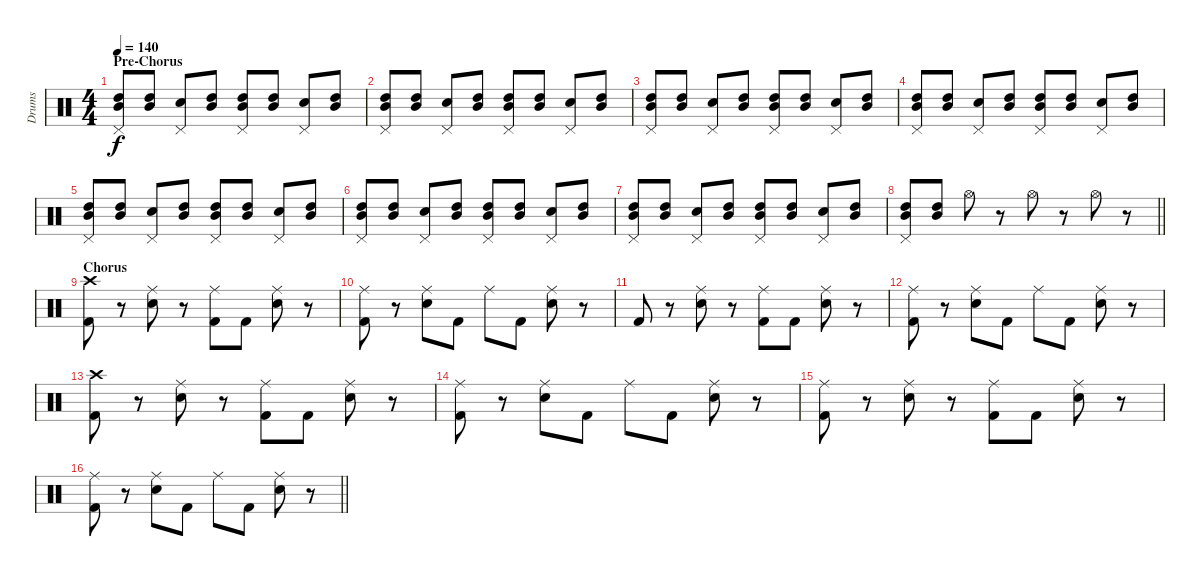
\track ("Drums" "Drums") {instrument percussion}
\staff {score}
\articulation defaults
\ts (4 4)
\section ("" "Pre-Chorus")
\tempo 140
\clef neutral
\ks c
("Pedal Hi-Hat (hit)" "High Tom (hit)" "Mid Tom (hit)").8{dy f} ("High Tom (hit)" "Mid Tom (hit)").8 ("Pedal Hi-Hat (hit)" "Snare (hit) 2").8 ("High Tom (hit)" "Mid Tom (hit)").8 ("Pedal Hi-Hat (hit)" "High Tom (hit)" "Mid Tom (hit)").8 ("High Tom (hit)" "Mid Tom (hit)").8 ("Pedal Hi-Hat (hit)" "Snare (hit) 2").8 ("High Tom (hit)" "Mid Tom (hit)").8 |
("Pedal Hi-Hat (hit)" "High Tom (hit)" "Mid Tom (hit)").8 ("High Tom (hit)" "Mid Tom (hit)").8 ("Pedal Hi-Hat (hit)" "Snare (hit) 2").8 ("High Tom (hit)" "Mid Tom (hit)").8 ("Pedal Hi-Hat (hit)" "High Tom (hit)" "Mid Tom (hit)").8 ("High Tom (hit)" "Mid Tom (hit)").8 ("Pedal Hi-Hat (hit)" "Snare (hit) 2").8 ("High Tom (hit)" "Mid Tom (hit)").8 |
("Pedal Hi-Hat (hit)" "High Tom (hit)" "Mid Tom (hit)").8 ("High Tom (hit)" "Mid Tom (hit)").8 ("Pedal Hi-Hat (hit)" "Snare (hit) 2").8 ("High Tom (hit)" "Mid Tom (hit)").8 ("Pedal Hi-Hat (hit)" "High Tom (hit)" "Mid Tom (hit)").8 ("High Tom (hit)" "Mid Tom (hit)").8 ("Pedal Hi-Hat (hit)" "Snare (hit) 2").8 ("High Tom (hit)" "Mid Tom (hit)").8 |
("Pedal Hi-Hat (hit)" "High Tom (hit)" "Mid Tom (hit)").8 ("High Tom (hit)" "Mid Tom (hit)").8 ("Pedal Hi-Hat (hit)" "Snare (hit) 2").8 ("High Tom (hit)" "Mid Tom (hit)").8 ("Pedal Hi-Hat (hit)" "High Tom (hit)" "Mid Tom (hit)").8 ("High Tom (hit)" "Mid Tom (hit)").8 ("Pedal Hi-Hat (hit)" "Snare (hit) 2").8 ("High Tom (hit)" "Mid Tom (hit)").8 |
("Pedal Hi-Hat (hit)" "High Tom (hit)" "Mid Tom (hit)").8 ("High Tom (hit)" "Mid Tom (hit)").8 ("Pedal Hi-Hat (hit)" "Snare (hit) 2").8 ("High Tom (hit)" "Mid Tom (hit)").8 ("Pedal Hi-Hat (hit)" "High Tom (hit)" "Mid Tom (hit)").8 ("High Tom (hit)" "Mid Tom (hit)").8 ("Pedal Hi-Hat (hit)" "Snare (hit) 2").8 ("High Tom (hit)" "Mid Tom (hit)").8 |
("Pedal Hi-Hat (hit)" "High Tom (hit)" "Mid Tom (hit)").8 ("High Tom (hit)" "Mid Tom (hit)").8 ("Pedal Hi-Hat (hit)" "Snare (hit) 2").8 ("High Tom (hit)" "Mid Tom (hit)").8 ("Pedal Hi-Hat (hit)" "High Tom (hit)" "Mid Tom (hit)").8 ("High Tom (hit)" "Mid Tom (hit)").8 ("Pedal Hi-Hat (hit)" "Snare (hit) 2").8 ("High Tom (hit)" "Mid Tom (hit)").8 |
("Pedal Hi-Hat (hit)" "High Tom (hit)" "Mid Tom (hit)").8 ("High Tom (hit)" "Mid Tom (hit)").8 ("Pedal Hi-Hat (hit)" "Snare (hit) 2").8 ("High Tom (hit)" "Mid Tom (hit)").8 ("Pedal Hi-Hat (hit)" "High Tom (hit)" "Mid Tom (hit)").8 ("High Tom (hit)" "Mid Tom (hit)").8 ("Pedal Hi-Hat (hit)" "Snare (hit) 2").8 ("High Tom (hit)" "Mid Tom (hit)").8 |
\barLineRight lightlight
("Pedal Hi-Hat (hit)" "High Tom (hit)" "Mid Tom (hit)").8 ("High Tom (hit)" "Mid Tom (hit)").8 "Hi-Hat (open)".8 r.8 "Hi-Hat (open)".8 r.8 "Hi-Hat (open)".8 r.8 |
\section ("" "Chorus")
("Crash high (hit)" "Kick (hit) 2").8 r.8 ("Ride (middle)" "Snare (hit) 2").8 r.8 ("Ride (middle)" "Kick (hit) 2").8 "Kick (hit) 2".8 ("Ride (middle)" "Snare (hit) 2").8 r.8 |
("Ride (middle)" "Kick (hit) 2").8 r.8 ("Ride (middle)" "Snare (hit) 2").8 "Kick (hit) 2".8 "Ride (middle)".8 "Kick (hit) 2".8 ("Ride (middle)" "Snare (hit) 2").8 r.8 |
"Kick (hit) 2".8 r.8 ("Ride (middle)" "Snare (hit) 2").8 r.8 ("Ride (middle)" "Kick (hit) 2").8 "Kick (hit) 2".8 ("Ride (middle)" "Snare (hit) 2").8 r.8 |
("Ride (middle)" "Kick (hit) 2").8 r.8 ("Ride (middle)" "Snare (hit) 2").8 "Kick (hit) 2".8 "Ride (middle)".8 "Kick (hit) 2".8 ("Ride (middle)" "Snare (hit) 2").8 r.8 |
("Crash high (hit)" "Kick (hit) 2").8 r.8 ("Ride (middle)" "Snare (hit) 2").8 r.8 ("Ride (middle)" "Kick (hit) 2").8 "Kick (hit) 2".8 ("Ride (middle)" "Snare (hit) 2").8 r.8 |
("Ride (middle)" "Kick (hit) 2").8 r.8 ("Ride (middle)" "Snare (hit) 2").8 "Kick (hit) 2".8 "Ride (middle)".8 "Kick (hit) 2".8 ("Ride (middle)" "Snare (hit) 2").8 r.8 |
("Ride (middle)" "Kick (hit) 2").8 r.8 ("Ride (middle)" "Snare (hit) 2").8 r.8 ("Ride (middle)" "Kick (hit) 2").8 "Kick (hit) 2".8 ("Ride (middle)" "Snare (hit) 2").8 r.8 |
\barLineRight lightlight
("Ride (middle)" "Kick (hit) 2").8 r.8 ("Ride (middle)" "Snare (hit) 2").8 "Kick (hit) 2".8 "Ride (middle)".8 "Kick (hit) 2".8 ("Ride (middle)" "Snare (hit) 2").8 r.8
